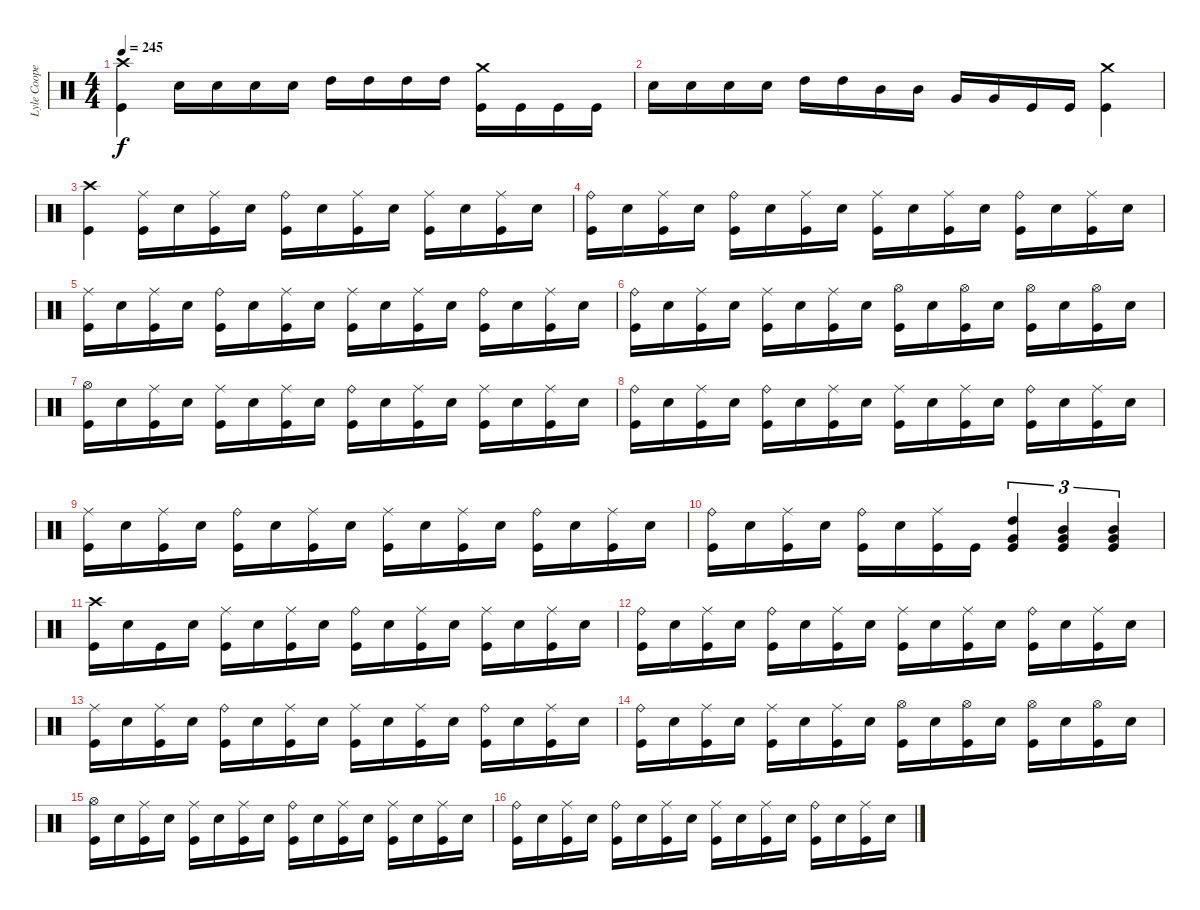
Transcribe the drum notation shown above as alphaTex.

\track ("Lyle Cooper" "Lyle Coope") {instrument percussion}
\staff {score}
\articulation defaults
\ts (4 4)
\tempo 245
\clef neutral
\ks c
("Crash high (hit)" "Kick (hit)").4{dy f} "Snare (hit) 2".16 "Snare (hit) 2".16 "Snare (hit) 2".16 "Snare (hit) 2".16 "High Tom (hit)".16 "High Tom (hit)".16 "High Tom (hit)".16 "High Tom (hit)".16 ("Crash medium (hit)" "Kick (hit)").16 "Kick (hit)".16 "Kick (hit)".16 "Kick (hit)".16 |
"Snare (hit) 2".16 "Snare (hit) 2".16 "Snare (hit) 2".16 "Snare (hit) 2".16 "High Tom (hit)".16 "High Tom (hit)".16 "Mid Tom (hit)".16 "Mid Tom (hit)".16 "Very Low Tom (hit)".16 "Very Low Tom (hit)".16 "Kick (hit)".16 "Kick (hit)".16 ("Crash medium (hit)" "Kick (hit)").4 |
("Crash high (hit)" "Kick (hit)").4 ("Ride (middle)" "Kick (hit)").16 "Snare (hit) 2".16 ("Ride (middle)" "Kick (hit)").16 "Snare (hit) 2".16 ("Ride (bell)" "Kick (hit)").16 "Snare (hit) 2".16 ("Ride (middle)" "Kick (hit)").16 "Snare (hit) 2".16 ("Ride (middle)" "Kick (hit)").16 "Snare (hit) 2".16 ("Ride (middle)" "Kick (hit)").16 "Snare (hit) 2".16 |
("Ride (bell)" "Kick (hit)").16 "Snare (hit) 2".16 ("Ride (middle)" "Kick (hit)").16 "Snare (hit) 2".16 ("Ride (bell)" "Kick (hit)").16 "Snare (hit) 2".16 ("Ride (middle)" "Kick (hit)").16 "Snare (hit) 2".16 ("Ride (middle)" "Kick (hit)").16 "Snare (hit) 2".16 ("Ride (middle)" "Kick (hit)").16 "Snare (hit) 2".16 ("Ride (bell)" "Kick (hit)").16 "Snare (hit) 2".16 ("Ride (middle)" "Kick (hit)").16 "Snare (hit) 2".16 |
("Ride (middle)" "Kick (hit)").16 "Snare (hit) 2".16 ("Ride (middle)" "Kick (hit)").16 "Snare (hit) 2".16 ("Ride (bell)" "Kick (hit)").16 "Snare (hit) 2".16 ("Ride (middle)" "Kick (hit)").16 "Snare (hit) 2".16 ("Ride (middle)" "Kick (hit)").16 "Snare (hit) 2".16 ("Ride (middle)" "Kick (hit)").16 "Snare (hit) 2".16 ("Ride (bell)" "Kick (hit)").16 "Snare (hit) 2".16 ("Ride (middle)" "Kick (hit)").16 "Snare (hit) 2".16 |
("Ride (bell)" "Kick (hit)").16 "Snare (hit) 2".16 ("Ride (middle)" "Kick (hit)").16 "Snare (hit) 2".16 ("Ride (middle)" "Kick (hit)").16 "Snare (hit) 2".16 ("Ride (middle)" "Kick (hit)").16 "Snare (hit) 2".16 ("Hi-Hat (open)" "Kick (hit)").16 "Snare (hit) 2".16 ("Hi-Hat (open)" "Kick (hit)").16 "Snare (hit) 2".16 ("Hi-Hat (open)" "Kick (hit)").16 "Snare (hit) 2".16 ("Hi-Hat (open)" "Kick (hit)").16 "Snare (hit) 2".16 |
("Hi-Hat (open)" "Kick (hit)").16 "Snare (hit) 2".16 ("Ride (middle)" "Kick (hit)").16 "Snare (hit) 2".16 ("Ride (middle)" "Kick (hit)").16 "Snare (hit) 2".16 ("Ride (middle)" "Kick (hit)").16 "Snare (hit) 2".16 ("Ride (bell)" "Kick (hit)").16 "Snare (hit) 2".16 ("Ride (middle)" "Kick (hit)").16 "Snare (hit) 2".16 ("Ride (middle)" "Kick (hit)").16 "Snare (hit) 2".16 ("Ride (middle)" "Kick (hit)").16 "Snare (hit) 2".16 |
("Ride (bell)" "Kick (hit)").16 "Snare (hit) 2".16 ("Ride (middle)" "Kick (hit)").16 "Snare (hit) 2".16 ("Ride (bell)" "Kick (hit)").16 "Snare (hit) 2".16 ("Ride (middle)" "Kick (hit)").16 "Snare (hit) 2".16 ("Ride (middle)" "Kick (hit)").16 "Snare (hit) 2".16 ("Ride (middle)" "Kick (hit)").16 "Snare (hit) 2".16 ("Ride (bell)" "Kick (hit)").16 "Snare (hit) 2".16 ("Ride (middle)" "Kick (hit)").16 "Snare (hit) 2".16 |
("Ride (middle)" "Kick (hit)").16 "Snare (hit) 2".16 ("Ride (middle)" "Kick (hit)").16 "Snare (hit) 2".16 ("Ride (bell)" "Kick (hit)").16 "Snare (hit) 2".16 ("Ride (middle)" "Kick (hit)").16 "Snare (hit) 2".16 ("Ride (middle)" "Kick (hit)").16 "Snare (hit) 2".16 ("Ride (middle)" "Kick (hit)").16 "Snare (hit) 2".16 ("Ride (bell)" "Kick (hit)").16 "Snare (hit) 2".16 ("Ride (middle)" "Kick (hit)").16 "Snare (hit) 2".16 |
("Ride (bell)" "Kick (hit)").16 "Snare (hit) 2".16 ("Ride (middle)" "Kick (hit)").16 "Snare (hit) 2".16 ("Ride (bell)" "Kick (hit)").16 "Snare (hit) 2".16 ("Ride (middle)" "Kick (hit)").16 "Kick (hit)".16 ("Very Low Tom (hit)" "High Tom (hit)" "Kick (hit)").4{tu (3 2)} ("Very Low Tom (hit)" "Mid Tom (hit)" "Kick (hit)").4{tu (3 2)} ("Very Low Tom (hit)" "Mid Tom (hit)" "Kick (hit)").4{tu (3 2)} |
("Crash high (hit)" "Kick (hit)").16 "Snare (hit) 2".16 "Kick (hit)".16 "Snare (hit) 2".16 ("Ride (middle)" "Kick (hit)").16 "Snare (hit) 2".16 ("Ride (middle)" "Kick (hit)").16 "Snare (hit) 2".16 ("Ride (bell)" "Kick (hit)").16 "Snare (hit) 2".16 ("Ride (middle)" "Kick (hit)").16 "Snare (hit) 2".16 ("Ride (middle)" "Kick (hit)").16 "Snare (hit) 2".16 ("Ride (middle)" "Kick (hit)").16 "Snare (hit) 2".16 |
("Ride (bell)" "Kick (hit)").16 "Snare (hit) 2".16 ("Ride (middle)" "Kick (hit)").16 "Snare (hit) 2".16 ("Ride (bell)" "Kick (hit)").16 "Snare (hit) 2".16 ("Ride (middle)" "Kick (hit)").16 "Snare (hit) 2".16 ("Ride (middle)" "Kick (hit)").16 "Snare (hit) 2".16 ("Ride (middle)" "Kick (hit)").16 "Snare (hit) 2".16 ("Ride (bell)" "Kick (hit)").16 "Snare (hit) 2".16 ("Ride (middle)" "Kick (hit)").16 "Snare (hit) 2".16 |
("Ride (middle)" "Kick (hit)").16 "Snare (hit) 2".16 ("Ride (middle)" "Kick (hit)").16 "Snare (hit) 2".16 ("Ride (bell)" "Kick (hit)").16 "Snare (hit) 2".16 ("Ride (middle)" "Kick (hit)").16 "Snare (hit) 2".16 ("Ride (middle)" "Kick (hit)").16 "Snare (hit) 2".16 ("Ride (middle)" "Kick (hit)").16 "Snare (hit) 2".16 ("Ride (bell)" "Kick (hit)").16 "Snare (hit) 2".16 ("Ride (middle)" "Kick (hit)").16 "Snare (hit) 2".16 |
("Ride (bell)" "Kick (hit)").16 "Snare (hit) 2".16 ("Ride (middle)" "Kick (hit)").16 "Snare (hit) 2".16 ("Ride (middle)" "Kick (hit)").16 "Snare (hit) 2".16 ("Ride (middle)" "Kick (hit)").16 "Snare (hit) 2".16 ("Hi-Hat (open)" "Kick (hit)").16 "Snare (hit) 2".16 ("Hi-Hat (open)" "Kick (hit)").16 "Snare (hit) 2".16 ("Hi-Hat (open)" "Kick (hit)").16 "Snare (hit) 2".16 ("Hi-Hat (open)" "Kick (hit)").16 "Snare (hit) 2".16 |
("Hi-Hat (open)" "Kick (hit)").16 "Snare (hit) 2".16 ("Ride (middle)" "Kick (hit)").16 "Snare (hit) 2".16 ("Ride (middle)" "Kick (hit)").16 "Snare (hit) 2".16 ("Ride (middle)" "Kick (hit)").16 "Snare (hit) 2".16 ("Ride (bell)" "Kick (hit)").16 "Snare (hit) 2".16 ("Ride (middle)" "Kick (hit)").16 "Snare (hit) 2".16 ("Ride (middle)" "Kick (hit)").16 "Snare (hit) 2".16 ("Ride (middle)" "Kick (hit)").16 "Snare (hit) 2".16 |
("Ride (bell)" "Kick (hit)").16 "Snare (hit) 2".16 ("Ride (middle)" "Kick (hit)").16 "Snare (hit) 2".16 ("Ride (bell)" "Kick (hit)").16 "Snare (hit) 2".16 ("Ride (middle)" "Kick (hit)").16 "Snare (hit) 2".16 ("Ride (middle)" "Kick (hit)").16 "Snare (hit) 2".16 ("Ride (middle)" "Kick (hit)").16 "Snare (hit) 2".16 ("Ride (bell)" "Kick (hit)").16 "Snare (hit) 2".16 ("Ride (middle)" "Kick (hit)").16 "Snare (hit) 2".16
